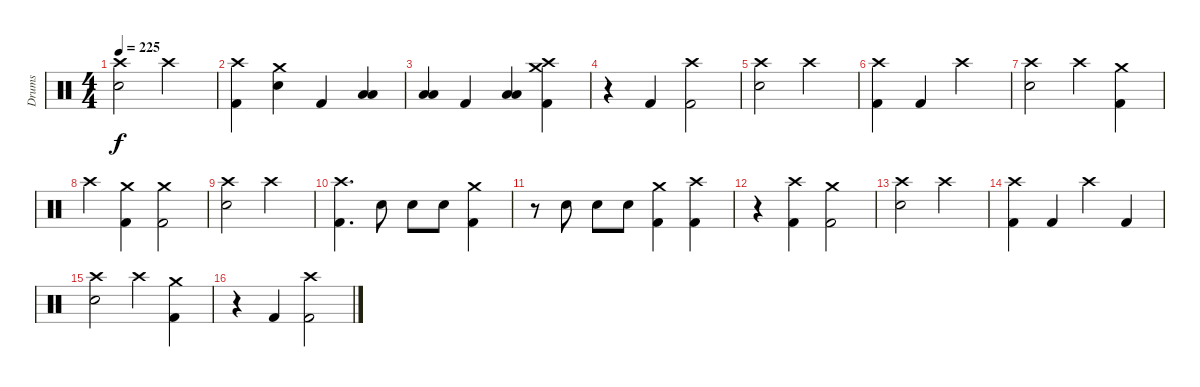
\track ("Drums" "Drums") {instrument percussion}
\staff {score}
\articulation defaults
\ts (4 4)
\tempo 225
\clef neutral
\ks c
("Electric Snare (hit)" "Crash high (hit)").2{dy f} "Crash high (hit)".2 |
("Crash high (hit)" "Kick (hit) 2").4 ("Electric Snare (hit)" "Crash medium (hit)").4 "Kick (hit) 2".4 ("Low Tom (hit)" "Low Floor Tom (hit)").4 |
("Low Tom (hit)" "Low Floor Tom (hit)").4 "Kick (hit) 2".4 ("Low Tom (hit)" "Low Floor Tom (hit)").4 ("Kick (hit) 2" "Crash medium (hit)" "Crash high (hit)").4 |
r.4 "Kick (hit) 2".4 ("Kick (hit) 2" "Crash high (hit)").2 |
("Electric Snare (hit)" "Crash high (hit)").2 "Crash high (hit)".2 |
("Crash high (hit)" "Kick (hit) 2").4 "Kick (hit) 2".4 "Crash high (hit)".2 |
("Electric Snare (hit)" "Crash high (hit)").2 "Crash high (hit)".4 ("Kick (hit) 2" "Crash medium (hit)").4 |
"Crash high (hit)".4 ("Kick (hit) 2" "Crash medium (hit)").4 ("Kick (hit) 2" "Crash medium (hit)").2 |
("Electric Snare (hit)" "Crash high (hit)").2 "Crash high (hit)".2 |
("Crash high (hit)" "Kick (hit) 2").4{d} "Electric Snare (hit)".8 "Electric Snare (hit)".8 "Electric Snare (hit)".8 ("Kick (hit) 2" "Crash medium (hit)").4 |
r.8 "Electric Snare (hit)".8 "Electric Snare (hit)".8 "Electric Snare (hit)".8 ("Kick (hit) 2" "Crash medium (hit)").4 ("Kick (hit) 2" "Crash high (hit)").4 |
r.4 ("Kick (hit) 2" "Crash high (hit)").4 ("Kick (hit) 2" "Crash medium (hit)").2 |
("Crash high (hit)" "Electric Snare (hit)").2 "Crash high (hit)".2 |
("Crash high (hit)" "Kick (hit) 2").4 "Kick (hit) 2".4 "Crash high (hit)".4 "Kick (hit) 2".4 |
("Crash high (hit)" "Electric Snare (hit)").2 "Crash high (hit)".4 ("Kick (hit) 2" "Crash medium (hit)").4 |
r.4 "Kick (hit) 2".4 ("Crash high (hit)" "Kick (hit) 2").2
